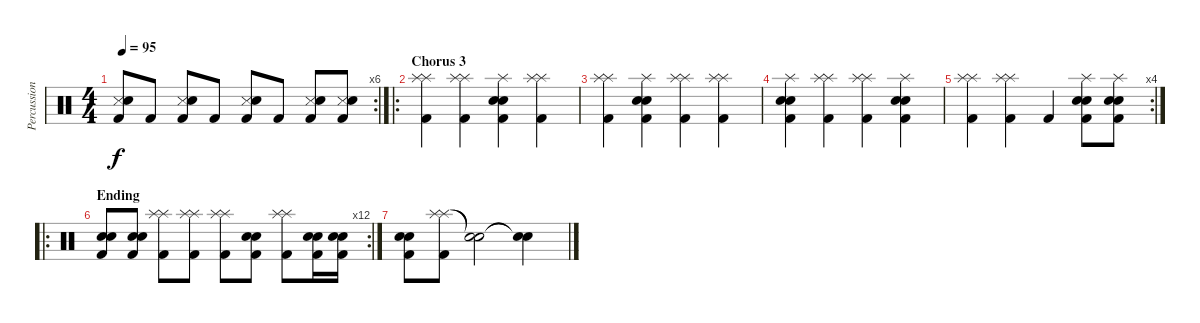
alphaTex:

\track ("Percussion" "Percussion") {instrument percussion}
\staff {score}
\articulation defaults
\rc 6
\ts (4 4)
\tempo 95
\clef neutral
\ks c
("Metronome (hit)" "Electric Snare (hit)" "Kick (hit) 2").8{dy f} "Kick (hit) 2".8 ("Metronome (hit)" "Electric Snare (hit)" "Kick (hit) 2").8 "Kick (hit) 2".8 ("Metronome (hit)" "Electric Snare (hit)" "Kick (hit) 2").8 "Kick (hit) 2".8 ("Metronome (hit)" "Electric Snare (hit)" "Kick (hit) 2").8 ("Metronome (hit)" "Electric Snare (hit)" "Kick (hit) 2").8 |
\ro
\section ("" "Chorus 3")
("Splash (hit)" "Splash (hit)" "Kick (hit) 2").4 ("Splash (hit)" "Splash (hit)" "Kick (hit) 2").4 ("Splash (hit)" "Electric Snare (hit)" "Electric Snare (hit)" "Kick (hit) 2").4 ("Splash (hit)" "Splash (hit)" "Kick (hit) 2").4 |
("Splash (hit)" "Splash (hit)" "Kick (hit) 2").4 ("Splash (hit)" "Electric Snare (hit)" "Electric Snare (hit)" "Kick (hit) 2").4 ("Splash (hit)" "Splash (hit)" "Kick (hit) 2").4 ("Splash (hit)" "Splash (hit)" "Kick (hit) 2").4 |
("Splash (hit)" "Electric Snare (hit)" "Electric Snare (hit)" "Kick (hit) 2").4 ("Splash (hit)" "Splash (hit)" "Kick (hit) 2").4 ("Splash (hit)" "Splash (hit)" "Kick (hit) 2").4 ("Splash (hit)" "Electric Snare (hit)" "Electric Snare (hit)" "Kick (hit) 2").4 |
\rc 4
("Splash (hit)" "Splash (hit)" "Kick (hit) 2").4 ("Splash (hit)" "Splash (hit)" "Kick (hit) 2").4 "Kick (hit) 2".4 ("Splash (hit)" "Electric Snare (hit)" "Electric Snare (hit)" "Kick (hit) 2").8 ("Splash (hit)" "Electric Snare (hit)" "Electric Snare (hit)" "Kick (hit) 2").8 |
\ro
\rc 12
\section ("" "Ending")
("Electric Snare (hit)" "Electric Snare (hit)" "Kick (hit) 2").8 ("Electric Snare (hit)" "Electric Snare (hit)" "Kick (hit) 2").8 ("Splash (hit)" "Splash (hit)" "Kick (hit) 2").8 ("Splash (hit)" "Splash (hit)" "Kick (hit) 2").8 ("Splash (hit)" "Splash (hit)" "Kick (hit) 2").8 ("Electric Snare (hit)" "Electric Snare (hit)" "Kick (hit) 2").8 ("Splash (hit)" "Splash (hit)" "Kick (hit) 2").8 ("Electric Snare (hit)" "Electric Snare (hit)" "Kick (hit) 2").16 ("Electric Snare (hit)" "Electric Snare (hit)" "Kick (hit) 2").16 |
("Electric Snare (hit)" "Electric Snare (hit)" "Kick (hit) 2").8 ("Splash (hit)" "Splash (hit)" "Kick (hit) 2").8 ("Snare (hit)"{t} "Snare (hit)"{t}).2 ("Snare (hit)"{t} "Snare (hit)"{t}).4
